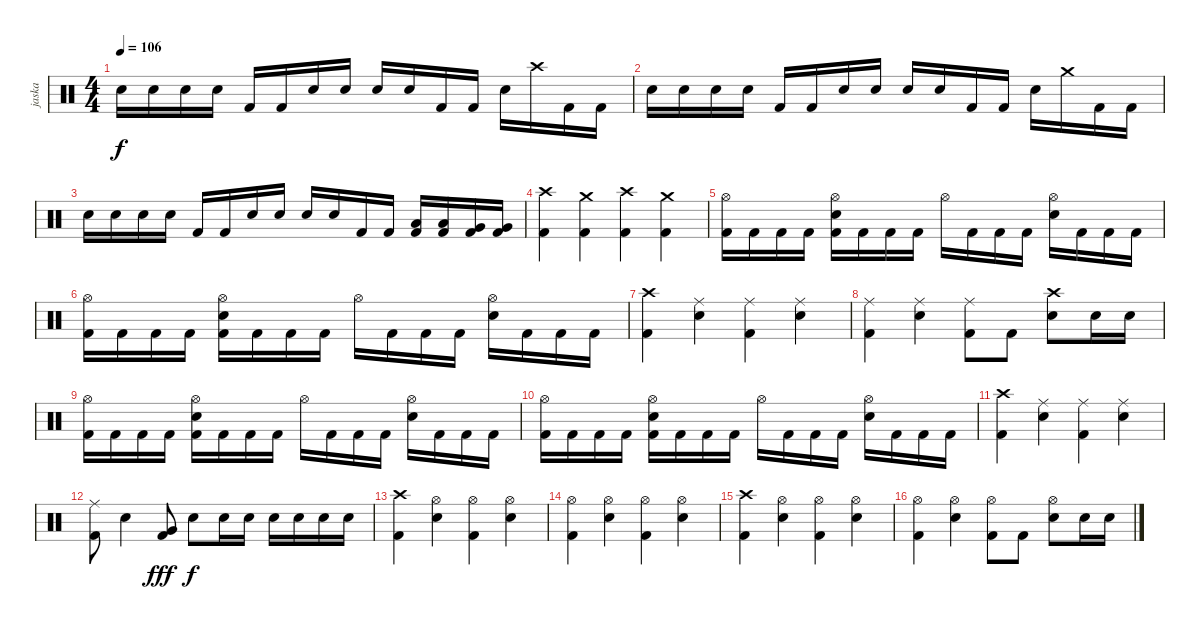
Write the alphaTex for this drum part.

\track ("jaska" "jaska") {instrument percussion}
\staff {score}
\articulation defaults
\ts (4 4)
\tempo 106
\clef neutral
\ks c "Snare (hit) 2".16{dy f} "Snare (hit) 2".16 "Snare (hit) 2".16 "Snare (hit) 2".16 "Kick (hit) 2".16 "Kick (hit) 2".16 "Snare (hit) 2".16 "Snare (hit) 2".16 "Snare (hit) 2".16 "Snare (hit) 2".16 "Kick (hit) 2".16 "Kick (hit) 2".16 "Snare (hit) 2".16 "Crash high (hit)".16 "Kick (hit) 2".16 "Kick (hit) 2".16
|
"Snare (hit) 2".16 "Snare (hit) 2".16 "Snare (hit) 2".16 "Snare (hit) 2".16 "Kick (hit) 2".16 "Kick (hit) 2".16 "Snare (hit) 2".16 "Snare (hit) 2".16 "Snare (hit) 2".16 "Snare (hit) 2".16 "Kick (hit) 2".16 "Kick (hit) 2".16 "Snare (hit) 2".16 "Crash medium (hit)".16 "Kick (hit) 2".16 "Kick (hit) 2".16 |
"Snare (hit) 2".16 "Snare (hit) 2".16 "Snare (hit) 2".16 "Snare (hit) 2".16 "Kick (hit) 2".16 "Kick (hit) 2".16 "Snare (hit) 2".16 "Snare (hit) 2".16 "Snare (hit) 2".16 "Snare (hit) 2".16 "Kick (hit) 2".16 "Kick (hit) 2".16 ("Kick (hit) 2" "Low Tom (hit)").16 ("Kick (hit) 2" "Low Tom (hit)").16 ("Kick (hit) 2" "Very Low Tom (hit)").16 ("Kick (hit) 2" "Very Low Tom (hit)").16 |
("Kick (hit) 2" "Crash high (hit)").4 ("Kick (hit) 2" "Crash medium (hit)").4 ("Kick (hit) 2" "Crash high (hit)").4 ("Kick (hit) 2" "Crash medium (hit)").4 |
("Kick (hit) 2" "Hi-Hat (open)").16 "Kick (hit) 2".16 "Kick (hit) 2".16 "Kick (hit) 2".16 ("Kick (hit) 2" "Hi-Hat (open)" "Snare (hit) 2").16 "Kick (hit) 2".16 "Kick (hit) 2".16 "Kick (hit) 2".16 "Hi-Hat (open)".16 "Kick (hit) 2".16 "Kick (hit) 2".16 "Kick (hit) 2".16 ("Hi-Hat (open)" "Snare (hit) 2").16 "Kick (hit) 2".16 "Kick (hit) 2".16 "Kick (hit) 2".16 |
("Kick (hit) 2" "Hi-Hat (open)").16 "Kick (hit) 2".16 "Kick (hit) 2".16 "Kick (hit) 2".16 ("Kick (hit) 2" "Hi-Hat (open)" "Snare (hit) 2").16 "Kick (hit) 2".16 "Kick (hit) 2".16 "Kick (hit) 2".16 "Hi-Hat (open)".16 "Kick (hit) 2".16 "Kick (hit) 2".16 "Kick (hit) 2".16 ("Hi-Hat (open)" "Snare (hit) 2").16 "Kick (hit) 2".16 "Kick (hit) 2".16 "Kick (hit) 2".16 |
("Kick (hit) 2" "Crash high (hit)").4 ("Ride (middle)" "Snare (hit) 2").4 ("Kick (hit) 2" "Ride (middle)").4 ("Ride (middle)" "Snare (hit) 2").4 |
("Kick (hit) 2" "Ride (middle)").4 ("Ride (middle)" "Snare (hit) 2").4 ("Kick (hit) 2" "Ride (middle)").8 "Kick (hit) 2".8 ("Crash high (hit)" "Snare (hit) 2").8 "Snare (hit) 2".16 "Snare (hit) 2".16 |
("Kick (hit) 2" "Hi-Hat (open)").16 "Kick (hit) 2".16 "Kick (hit) 2".16 "Kick (hit) 2".16 ("Kick (hit) 2" "Hi-Hat (open)" "Snare (hit) 2").16 "Kick (hit) 2".16 "Kick (hit) 2".16 "Kick (hit) 2".16 "Hi-Hat (open)".16 "Kick (hit) 2".16 "Kick (hit) 2".16 "Kick (hit) 2".16 ("Hi-Hat (open)" "Snare (hit) 2").16 "Kick (hit) 2".16 "Kick (hit) 2".16 "Kick (hit) 2".16 |
("Kick (hit) 2" "Hi-Hat (open)").16 "Kick (hit) 2".16 "Kick (hit) 2".16 "Kick (hit) 2".16 ("Kick (hit) 2" "Hi-Hat (open)" "Snare (hit) 2").16 "Kick (hit) 2".16 "Kick (hit) 2".16 "Kick (hit) 2".16 "Hi-Hat (open)".16 "Kick (hit) 2".16 "Kick (hit) 2".16 "Kick (hit) 2".16 ("Hi-Hat (open)" "Snare (hit) 2").16 "Kick (hit) 2".16 "Kick (hit) 2".16 "Kick (hit) 2".16 |
("Kick (hit) 2" "Crash high (hit)").4 ("Ride (middle)" "Snare (hit) 2").4 ("Kick (hit) 2" "Ride (middle)").4 ("Ride (middle)" "Snare (hit) 2").4 |
("Kick (hit) 2" "Ride (middle)").8 "Snare (hit) 2".4 ("Kick (hit) 2" "Very Low Tom (hit)").8{dy fff} "Snare (hit) 2".8{dy f} "Snare (hit) 2".16 "Snare (hit) 2".16 "Snare (hit) 2".16 "Snare (hit) 2".16 "Snare (hit) 2".16 "Snare (hit) 2".16 |
("Kick (hit) 2" "Crash high (hit)").4 ("Hi-Hat (open)" "Snare (hit) 2").4 ("Kick (hit) 2" "Hi-Hat (open)").4 ("Hi-Hat (open)" "Snare (hit) 2").4 |
("Kick (hit) 2" "Hi-Hat (open)").4 ("Hi-Hat (open)" "Snare (hit) 2").4 ("Kick (hit) 2" "Hi-Hat (open)").4 ("Hi-Hat (open)" "Snare (hit) 2").4 |
("Kick (hit) 2" "Crash high (hit)").4 ("Hi-Hat (open)" "Snare (hit) 2").4 ("Kick (hit) 2" "Hi-Hat (open)").4 ("Hi-Hat (open)" "Snare (hit) 2").4 |
("Kick (hit) 2" "Hi-Hat (open)").4 ("Hi-Hat (open)" "Snare (hit) 2").4 ("Kick (hit) 2" "Hi-Hat (open)").8 "Kick (hit) 2".8 ("Hi-Hat (open)" "Snare (hit) 2").8 "Snare (hit) 2".16 "Snare (hit) 2".16
